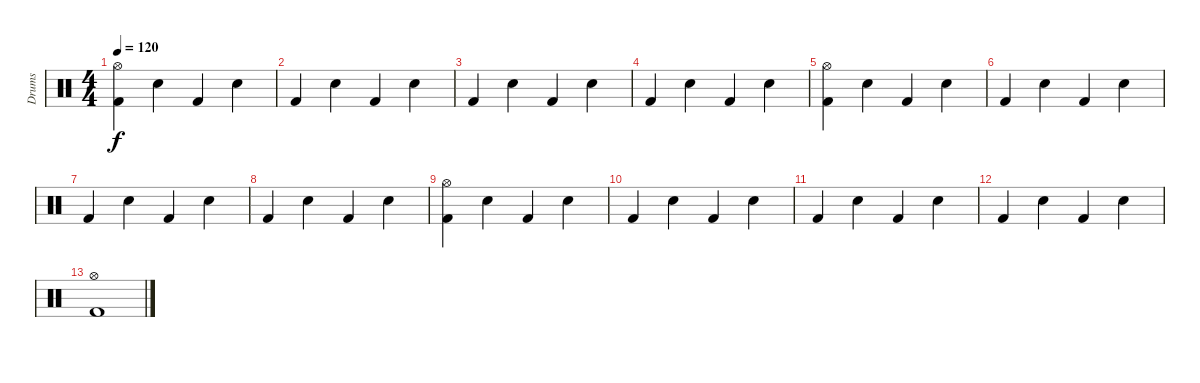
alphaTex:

\track ("Drums" "Drums") {instrument percussion}
\staff {score}
\articulation defaults
\ts (4 4)
\tempo 120
\clef neutral
\ks c
("Kick (hit) 2" "Hi-Hat (open)").4{dy f} "Electric Snare (hit)".4 "Kick (hit) 2".4 "Electric Snare (hit)".4 |
"Kick (hit) 2".4 "Electric Snare (hit)".4 "Kick (hit) 2".4 "Electric Snare (hit)".4 |
"Kick (hit) 2".4 "Electric Snare (hit)".4 "Kick (hit) 2".4 "Electric Snare (hit)".4 |
"Kick (hit) 2".4 "Electric Snare (hit)".4 "Kick (hit) 2".4 "Electric Snare (hit)".4 |
("Kick (hit) 2" "Hi-Hat (open)").4 "Electric Snare (hit)".4 "Kick (hit) 2".4 "Electric Snare (hit)".4 |
"Kick (hit) 2".4 "Electric Snare (hit)".4 "Kick (hit) 2".4 "Electric Snare (hit)".4 |
"Kick (hit) 2".4 "Electric Snare (hit)".4 "Kick (hit) 2".4 "Electric Snare (hit)".4 |
"Kick (hit) 2".4 "Electric Snare (hit)".4 "Kick (hit) 2".4 "Electric Snare (hit)".4 |
("Kick (hit) 2" "Hi-Hat (open)").4 "Electric Snare (hit)".4 "Kick (hit) 2".4 "Electric Snare (hit)".4 |
"Kick (hit) 2".4 "Electric Snare (hit)".4 "Kick (hit) 2".4 "Electric Snare (hit)".4 |
"Kick (hit) 2".4 "Electric Snare (hit)".4 "Kick (hit) 2".4 "Electric Snare (hit)".4 |
"Kick (hit) 2".4 "Electric Snare (hit)".4 "Kick (hit) 2".4 "Electric Snare (hit)".4 |
("Hi-Hat (open)" "Kick (hit) 2").1
